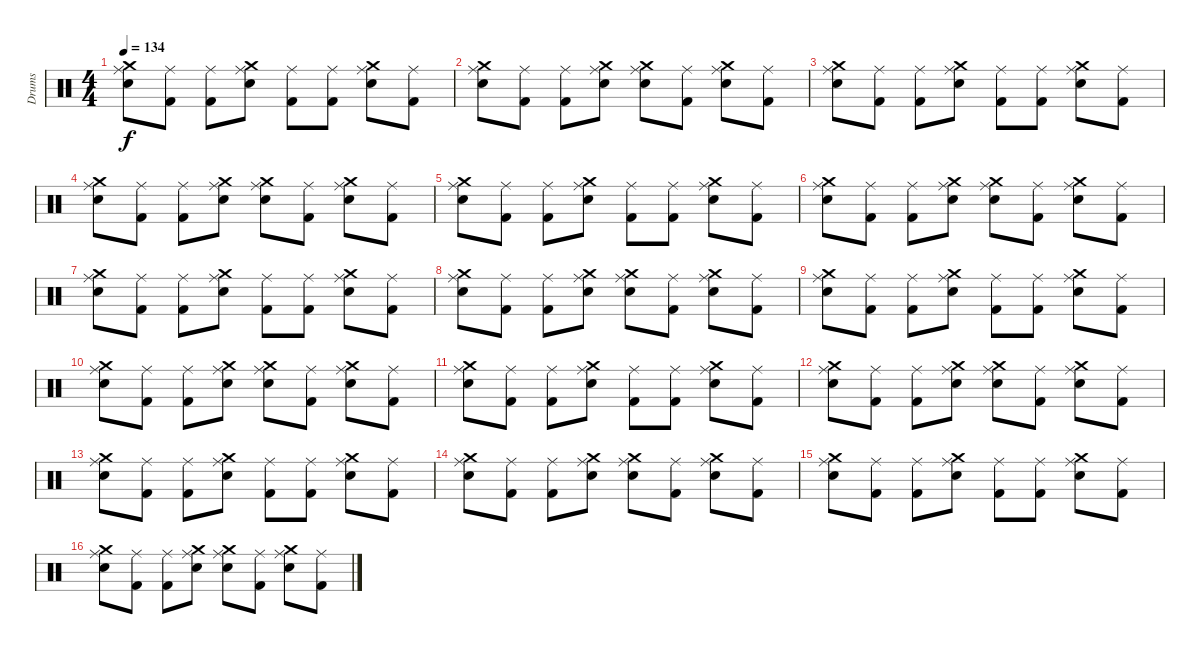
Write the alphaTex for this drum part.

\track ("Drums" "Drums") {instrument percussion}
\staff {score}
\articulation defaults
\ts (4 4)
\tempo 134
\clef neutral
\ks c
("Ride (middle)" "Crash medium (hit)" "Snare (hit) 2").8{dy f} ("Ride (middle)" "Kick (hit) 2").8 ("Ride (middle)" "Kick (hit) 2").8 ("Ride (middle)" "Crash medium (hit)" "Snare (hit) 2").8 ("Ride (middle)" "Kick (hit) 2").8 ("Ride (middle)" "Kick (hit) 2").8 ("Ride (middle)" "Crash medium (hit)" "Snare (hit) 2").8 ("Ride (middle)" "Kick (hit) 2").8 |
("Ride (middle)" "Crash medium (hit)" "Snare (hit) 2").8 ("Ride (middle)" "Kick (hit) 2").8 ("Ride (middle)" "Kick (hit) 2").8 ("Ride (middle)" "Crash medium (hit)" "Snare (hit) 2").8 ("Ride (middle)" "Crash medium (hit)" "Snare (hit) 2").8 ("Ride (middle)" "Kick (hit) 2").8 ("Ride (middle)" "Crash medium (hit)" "Snare (hit) 2").8 ("Ride (middle)" "Kick (hit) 2").8 |
("Ride (middle)" "Crash medium (hit)" "Snare (hit) 2").8 ("Ride (middle)" "Kick (hit) 2").8 ("Ride (middle)" "Kick (hit) 2").8 ("Ride (middle)" "Crash medium (hit)" "Snare (hit) 2").8 ("Ride (middle)" "Kick (hit) 2").8 ("Ride (middle)" "Kick (hit) 2").8 ("Ride (middle)" "Crash medium (hit)" "Snare (hit) 2").8 ("Ride (middle)" "Kick (hit) 2").8 |
("Ride (middle)" "Crash medium (hit)" "Snare (hit) 2").8 ("Ride (middle)" "Kick (hit) 2").8 ("Ride (middle)" "Kick (hit) 2").8 ("Ride (middle)" "Crash medium (hit)" "Snare (hit) 2").8 ("Ride (middle)" "Crash medium (hit)" "Snare (hit) 2").8 ("Ride (middle)" "Kick (hit) 2").8 ("Ride (middle)" "Crash medium (hit)" "Snare (hit) 2").8 ("Ride (middle)" "Kick (hit) 2").8 |
("Ride (middle)" "Crash medium (hit)" "Snare (hit) 2").8 ("Ride (middle)" "Kick (hit) 2").8 ("Ride (middle)" "Kick (hit) 2").8 ("Ride (middle)" "Crash medium (hit)" "Snare (hit) 2").8 ("Ride (middle)" "Kick (hit) 2").8 ("Ride (middle)" "Kick (hit) 2").8 ("Ride (middle)" "Crash medium (hit)" "Snare (hit) 2").8 ("Ride (middle)" "Kick (hit) 2").8 |
("Ride (middle)" "Crash medium (hit)" "Snare (hit) 2").8 ("Ride (middle)" "Kick (hit) 2").8 ("Ride (middle)" "Kick (hit) 2").8 ("Ride (middle)" "Crash medium (hit)" "Snare (hit) 2").8 ("Ride (middle)" "Crash medium (hit)" "Snare (hit) 2").8 ("Ride (middle)" "Kick (hit) 2").8 ("Ride (middle)" "Crash medium (hit)" "Snare (hit) 2").8 ("Ride (middle)" "Kick (hit) 2").8 |
("Ride (middle)" "Crash medium (hit)" "Snare (hit) 2").8 ("Ride (middle)" "Kick (hit) 2").8 ("Ride (middle)" "Kick (hit) 2").8 ("Ride (middle)" "Crash medium (hit)" "Snare (hit) 2").8 ("Ride (middle)" "Kick (hit) 2").8 ("Ride (middle)" "Kick (hit) 2").8 ("Ride (middle)" "Crash medium (hit)" "Snare (hit) 2").8 ("Ride (middle)" "Kick (hit) 2").8 |
("Ride (middle)" "Crash medium (hit)" "Snare (hit) 2").8 ("Ride (middle)" "Kick (hit) 2").8 ("Ride (middle)" "Kick (hit) 2").8 ("Ride (middle)" "Crash medium (hit)" "Snare (hit) 2").8 ("Ride (middle)" "Crash medium (hit)" "Snare (hit) 2").8 ("Ride (middle)" "Kick (hit) 2").8 ("Ride (middle)" "Crash medium (hit)" "Snare (hit) 2").8 ("Ride (middle)" "Kick (hit) 2").8 |
("Ride (middle)" "Crash medium (hit)" "Snare (hit) 2").8 ("Ride (middle)" "Kick (hit) 2").8 ("Ride (middle)" "Kick (hit) 2").8 ("Ride (middle)" "Crash medium (hit)" "Snare (hit) 2").8 ("Ride (middle)" "Kick (hit) 2").8 ("Ride (middle)" "Kick (hit) 2").8 ("Ride (middle)" "Crash medium (hit)" "Snare (hit) 2").8 ("Ride (middle)" "Kick (hit) 2").8 |
("Ride (middle)" "Crash medium (hit)" "Snare (hit) 2").8 ("Ride (middle)" "Kick (hit) 2").8 ("Ride (middle)" "Kick (hit) 2").8 ("Ride (middle)" "Crash medium (hit)" "Snare (hit) 2").8 ("Ride (middle)" "Crash medium (hit)" "Snare (hit) 2").8 ("Ride (middle)" "Kick (hit) 2").8 ("Ride (middle)" "Crash medium (hit)" "Snare (hit) 2").8 ("Ride (middle)" "Kick (hit) 2").8 |
("Ride (middle)" "Crash medium (hit)" "Snare (hit) 2").8 ("Ride (middle)" "Kick (hit) 2").8 ("Ride (middle)" "Kick (hit) 2").8 ("Ride (middle)" "Crash medium (hit)" "Snare (hit) 2").8 ("Ride (middle)" "Kick (hit) 2").8 ("Ride (middle)" "Kick (hit) 2").8 ("Ride (middle)" "Crash medium (hit)" "Snare (hit) 2").8 ("Ride (middle)" "Kick (hit) 2").8 |
("Ride (middle)" "Crash medium (hit)" "Snare (hit) 2").8 ("Ride (middle)" "Kick (hit) 2").8 ("Ride (middle)" "Kick (hit) 2").8 ("Ride (middle)" "Crash medium (hit)" "Snare (hit) 2").8 ("Ride (middle)" "Crash medium (hit)" "Snare (hit) 2").8 ("Ride (middle)" "Kick (hit) 2").8 ("Ride (middle)" "Crash medium (hit)" "Snare (hit) 2").8 ("Ride (middle)" "Kick (hit) 2").8 |
("Ride (middle)" "Crash medium (hit)" "Snare (hit) 2").8 ("Ride (middle)" "Kick (hit) 2").8 ("Ride (middle)" "Kick (hit) 2").8 ("Ride (middle)" "Crash medium (hit)" "Snare (hit) 2").8 ("Ride (middle)" "Kick (hit) 2").8 ("Ride (middle)" "Kick (hit) 2").8 ("Ride (middle)" "Crash medium (hit)" "Snare (hit) 2").8 ("Ride (middle)" "Kick (hit) 2").8 |
("Ride (middle)" "Crash medium (hit)" "Snare (hit) 2").8 ("Ride (middle)" "Kick (hit) 2").8 ("Ride (middle)" "Kick (hit) 2").8 ("Ride (middle)" "Crash medium (hit)" "Snare (hit) 2").8 ("Ride (middle)" "Crash medium (hit)" "Snare (hit) 2").8 ("Ride (middle)" "Kick (hit) 2").8 ("Ride (middle)" "Crash medium (hit)" "Snare (hit) 2").8 ("Ride (middle)" "Kick (hit) 2").8 |
("Ride (middle)" "Crash medium (hit)" "Snare (hit) 2").8 ("Ride (middle)" "Kick (hit) 2").8 ("Ride (middle)" "Kick (hit) 2").8 ("Ride (middle)" "Crash medium (hit)" "Snare (hit) 2").8 ("Ride (middle)" "Kick (hit) 2").8 ("Ride (middle)" "Kick (hit) 2").8 ("Ride (middle)" "Crash medium (hit)" "Snare (hit) 2").8 ("Ride (middle)" "Kick (hit) 2").8 |
("Ride (middle)" "Crash medium (hit)" "Snare (hit) 2").8 ("Ride (middle)" "Kick (hit) 2").8 ("Ride (middle)" "Kick (hit) 2").8 ("Ride (middle)" "Crash medium (hit)" "Snare (hit) 2").8 ("Ride (middle)" "Crash medium (hit)" "Snare (hit) 2").8 ("Ride (middle)" "Kick (hit) 2").8 ("Ride (middle)" "Crash medium (hit)" "Snare (hit) 2").8 ("Ride (middle)" "Kick (hit) 2").8
